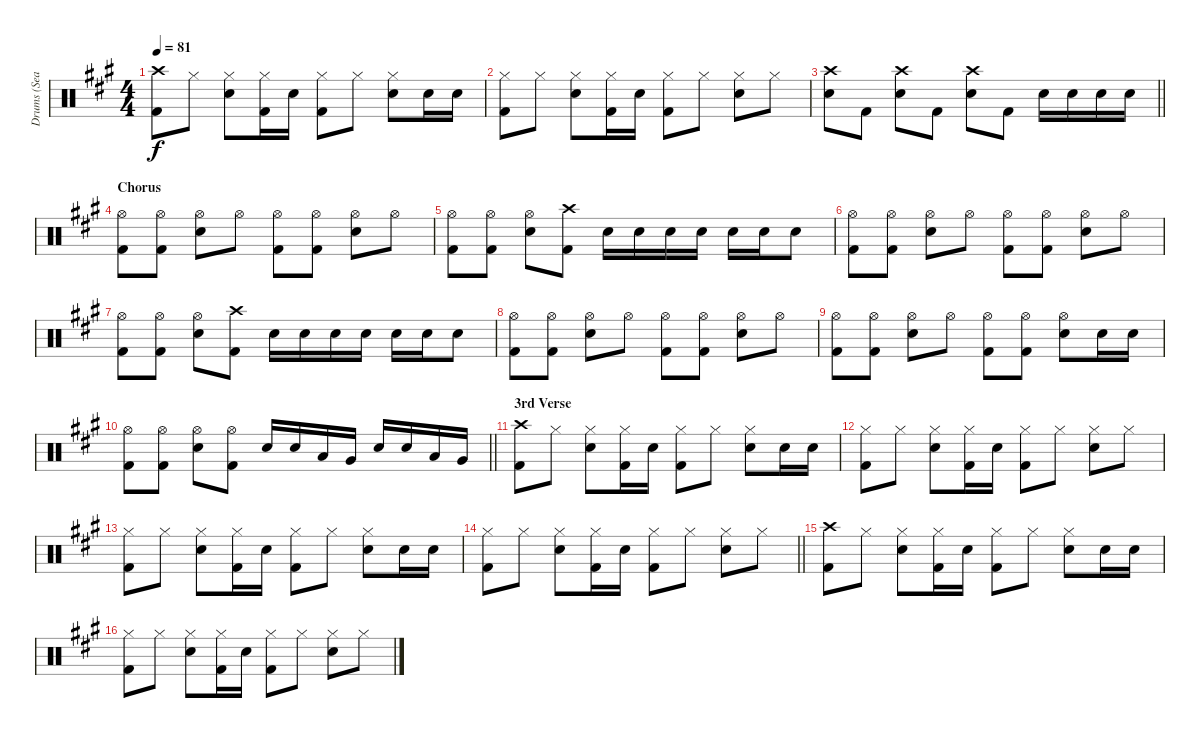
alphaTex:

\track ("Drums (Sean)" "Drums (Sea") {instrument percussion}
\staff {score}
\articulation defaults
\ts (4 4)
\tempo 81
\clef neutral
\ks f#minor
("Crash high (hit)" "Kick (hit) 2").8{dy f} "Hi-Hat (closed)".8 ("Hi-Hat (closed)" "Snare (hit) 2").8 ("Hi-Hat (closed)" "Kick (hit) 2").16 "Snare (hit) 2".16 ("Hi-Hat (closed)" "Kick (hit) 2").8 "Hi-Hat (closed)".8 ("Hi-Hat (closed)" "Snare (hit) 2").8 "Snare (hit) 2".16 "Snare (hit) 2".16 |
("Hi-Hat (closed)" "Kick (hit) 2").8 "Hi-Hat (closed)".8 ("Hi-Hat (closed)" "Snare (hit) 2").8 ("Hi-Hat (closed)" "Kick (hit) 2").16 "Snare (hit) 2".16 ("Hi-Hat (closed)" "Kick (hit) 2").8 "Hi-Hat (closed)".8 ("Hi-Hat (closed)" "Snare (hit) 2").8 "Hi-Hat (closed)".8 |
\barLineRight lightlight
("Crash high (hit)" "Snare (hit) 2").8 "Kick (hit) 2".8 ("Crash high (hit)" "Snare (hit) 2").8 "Kick (hit) 2".8 ("Crash high (hit)" "Snare (hit) 2").8 "Kick (hit) 2".8 "Snare (hit) 2".16 "Snare (hit) 2".16 "Snare (hit) 2".16 "Snare (hit) 2".16 |
\section ("" "Chorus")
("Hi-Hat (open)" "Kick (hit) 2").8 ("Hi-Hat (open)" "Kick (hit) 2").8 ("Hi-Hat (open)" "Snare (hit) 2").8 "Hi-Hat (open)".8 ("Hi-Hat (open)" "Kick (hit) 2").8 ("Hi-Hat (open)" "Kick (hit) 2").8 ("Hi-Hat (open)" "Snare (hit) 2").8 "Hi-Hat (open)".8 |
("Hi-Hat (open)" "Kick (hit) 2").8 ("Hi-Hat (open)" "Kick (hit) 2").8 ("Hi-Hat (open)" "Snare (hit) 2").8 ("Crash high (hit)" "Kick (hit) 2").8 "Snare (hit) 2".16 "Snare (hit) 2".16 "Snare (hit) 2".16 "Snare (hit) 2".16 "Snare (hit) 2".16 "Snare (hit) 2".16 "Snare (hit) 2".8 |
("Hi-Hat (open)" "Kick (hit) 2").8 ("Hi-Hat (open)" "Kick (hit) 2").8 ("Hi-Hat (open)" "Snare (hit) 2").8 "Hi-Hat (open)".8 ("Hi-Hat (open)" "Kick (hit) 2").8 ("Hi-Hat (open)" "Kick (hit) 2").8 ("Hi-Hat (open)" "Snare (hit) 2").8 "Hi-Hat (open)".8 |
("Hi-Hat (open)" "Kick (hit) 2").8 ("Hi-Hat (open)" "Kick (hit) 2").8 ("Hi-Hat (open)" "Snare (hit) 2").8 ("Crash high (hit)" "Kick (hit) 2").8 "Snare (hit) 2".16 "Snare (hit) 2".16 "Snare (hit) 2".16 "Snare (hit) 2".16 "Snare (hit) 2".16 "Snare (hit) 2".16 "Snare (hit) 2".8 |
("Hi-Hat (open)" "Kick (hit) 2").8 ("Hi-Hat (open)" "Kick (hit) 2").8 ("Hi-Hat (open)" "Snare (hit) 2").8 "Hi-Hat (open)".8 ("Hi-Hat (open)" "Kick (hit) 2").8 ("Hi-Hat (open)" "Kick (hit) 2").8 ("Hi-Hat (open)" "Snare (hit) 2").8 "Hi-Hat (open)".8 |
("Hi-Hat (open)" "Kick (hit) 2").8 ("Hi-Hat (open)" "Kick (hit) 2").8 ("Hi-Hat (open)" "Snare (hit) 2").8 "Hi-Hat (open)".8 ("Hi-Hat (open)" "Kick (hit) 2").8 ("Hi-Hat (open)" "Kick (hit) 2").8 ("Hi-Hat (open)" "Snare (hit) 2").8 "Snare (hit) 2".16 "Snare (hit) 2".16 |
\barLineRight lightlight
("Hi-Hat (open)" "Kick (hit) 2").8 ("Hi-Hat (open)" "Kick (hit) 2").8 ("Hi-Hat (open)" "Snare (hit) 2").8 ("Hi-Hat (open)" "Kick (hit) 2").8 "Snare (hit) 2".16 "Snare (hit) 2".16 "Low Tom (hit)".16 "Very Low Tom (hit)".16 "Snare (hit) 2".16 "Snare (hit) 2".16 "Low Tom (hit)".16 "Very Low Tom (hit)".16 |
\section ("" "3rd Verse")
("Crash high (hit)" "Kick (hit) 2").8 "Hi-Hat (closed)".8 ("Hi-Hat (closed)" "Snare (hit) 2").8 ("Hi-Hat (closed)" "Kick (hit) 2").16 "Snare (hit) 2".16 ("Hi-Hat (closed)" "Kick (hit) 2").8 "Hi-Hat (closed)".8 ("Hi-Hat (closed)" "Snare (hit) 2").8 "Snare (hit) 2".16 "Snare (hit) 2".16 |
("Hi-Hat (closed)" "Kick (hit) 2").8 "Hi-Hat (closed)".8 ("Hi-Hat (closed)" "Snare (hit) 2").8 ("Hi-Hat (closed)" "Kick (hit) 2").16 "Snare (hit) 2".16 ("Hi-Hat (closed)" "Kick (hit) 2").8 "Hi-Hat (closed)".8 ("Hi-Hat (closed)" "Snare (hit) 2").8 "Hi-Hat (closed)".8 |
("Hi-Hat (closed)" "Kick (hit) 2").8 "Hi-Hat (closed)".8 ("Hi-Hat (closed)" "Snare (hit) 2").8 ("Hi-Hat (closed)" "Kick (hit) 2").16 "Snare (hit) 2".16 ("Hi-Hat (closed)" "Kick (hit) 2").8 "Hi-Hat (closed)".8 ("Hi-Hat (closed)" "Snare (hit) 2").8 "Snare (hit) 2".16 "Snare (hit) 2".16 |
\barLineRight lightlight
("Hi-Hat (closed)" "Kick (hit) 2").8 "Hi-Hat (closed)".8 ("Hi-Hat (closed)" "Snare (hit) 2").8 ("Hi-Hat (closed)" "Kick (hit) 2").16 "Snare (hit) 2".16 ("Hi-Hat (closed)" "Kick (hit) 2").8 "Hi-Hat (closed)".8 ("Hi-Hat (closed)" "Snare (hit) 2").8 "Hi-Hat (closed)".8 |
("Crash high (hit)" "Kick (hit) 2").8 "Hi-Hat (closed)".8 ("Hi-Hat (closed)" "Snare (hit) 2").8 ("Hi-Hat (closed)" "Kick (hit) 2").16 "Snare (hit) 2".16 ("Hi-Hat (closed)" "Kick (hit) 2").8 "Hi-Hat (closed)".8 ("Hi-Hat (closed)" "Snare (hit) 2").8 "Snare (hit) 2".16 "Snare (hit) 2".16 |
("Hi-Hat (closed)" "Kick (hit) 2").8 "Hi-Hat (closed)".8 ("Hi-Hat (closed)" "Snare (hit) 2").8 ("Hi-Hat (closed)" "Kick (hit) 2").16 "Snare (hit) 2".16 ("Hi-Hat (closed)" "Kick (hit) 2").8 "Hi-Hat (closed)".8 ("Hi-Hat (closed)" "Snare (hit) 2").8 "Hi-Hat (closed)".8
